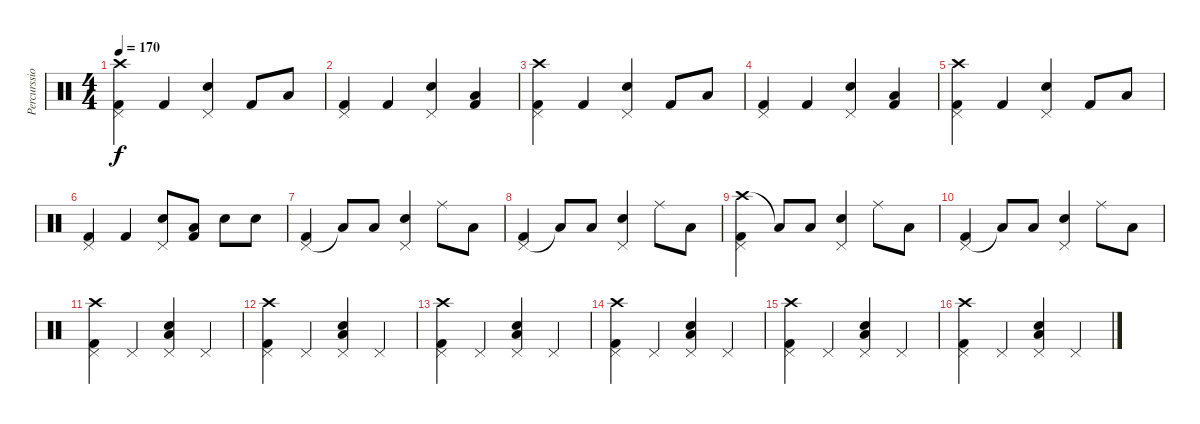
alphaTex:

\track ("Percurssion" "Percurssio") {instrument percussion}
\staff {score}
\articulation defaults
\ts (4 4)
\tempo 170
\clef neutral
\ks c
("Crash high (hit)" "Pedal Hi-Hat (hit)" "Kick (hit) 2").4{dy f} "Kick (hit) 2".4 ("Pedal Hi-Hat (hit)" "Electric Snare (hit)").4 "Kick (hit) 2".8 "Low Tom (hit)".8 |
("Pedal Hi-Hat (hit)" "Kick (hit) 2").4 "Kick (hit) 2".4 ("Pedal Hi-Hat (hit)" "Electric Snare (hit)").4 ("Low Tom (hit)" "Kick (hit) 2").4{bu 240} |
("Crash high (hit)" "Pedal Hi-Hat (hit)" "Kick (hit) 2").4 "Kick (hit) 2".4 ("Pedal Hi-Hat (hit)" "Electric Snare (hit)").4 "Kick (hit) 2".8 "Low Tom (hit)".8 |
("Pedal Hi-Hat (hit)" "Kick (hit) 2").4 "Kick (hit) 2".4 ("Pedal Hi-Hat (hit)" "Electric Snare (hit)").4 ("Low Tom (hit)" "Kick (hit) 2").4{bu 240} |
("Crash high (hit)" "Pedal Hi-Hat (hit)" "Kick (hit) 2").4 "Kick (hit) 2".4 ("Pedal Hi-Hat (hit)" "Electric Snare (hit)").4 "Kick (hit) 2".8 "Low Tom (hit)".8 |
("Pedal Hi-Hat (hit)" "Kick (hit) 2").4 "Kick (hit) 2".4 ("Pedal Hi-Hat (hit)" "Electric Snare (hit)").8 ("Low Tom (hit)" "Kick (hit) 2").8{bu 240} "Electric Snare (hit)".8 "Electric Snare (hit)".8 |
("Pedal Hi-Hat (hit)" "Kick (hit) 2").4 "Low Tom (hit)"{t}.8 "Low Tom (hit)".8 ("Pedal Hi-Hat (hit)" "Electric Snare (hit)").4 "Ride (middle)".8 "Low Tom (hit)".8 |
("Pedal Hi-Hat (hit)" "Kick (hit) 2").4 "Low Tom (hit)"{t}.8 "Low Tom (hit)".8 ("Pedal Hi-Hat (hit)" "Electric Snare (hit)").4 "Ride (middle)".8 "Low Tom (hit)".8 |
("Crash high (hit)" "Pedal Hi-Hat (hit)" "Kick (hit) 2").4 "Low Tom (hit)"{t}.8 "Low Tom (hit)".8 ("Pedal Hi-Hat (hit)" "Electric Snare (hit)").4 "Ride (middle)".8 "Low Tom (hit)".8 |
("Pedal Hi-Hat (hit)" "Kick (hit) 2").4 "Low Tom (hit)"{t}.8 "Low Tom (hit)".8 ("Pedal Hi-Hat (hit)" "Electric Snare (hit)").4 "Ride (middle)".8 "Low Tom (hit)".8 |
("Crash high (hit)" "Pedal Hi-Hat (hit)" "Kick (hit) 2").4 "Pedal Hi-Hat (hit)".4 ("Low Tom (hit)" "Pedal Hi-Hat (hit)" "Electric Snare (hit)").4 "Pedal Hi-Hat (hit)".4 |
("Crash high (hit)" "Pedal Hi-Hat (hit)" "Kick (hit) 2").4 "Pedal Hi-Hat (hit)".4 ("Low Tom (hit)" "Pedal Hi-Hat (hit)" "Electric Snare (hit)").4 "Pedal Hi-Hat (hit)".4 |
("Crash high (hit)" "Pedal Hi-Hat (hit)" "Kick (hit) 2").4 "Pedal Hi-Hat (hit)".4 ("Low Tom (hit)" "Pedal Hi-Hat (hit)" "Electric Snare (hit)").4 "Pedal Hi-Hat (hit)".4 |
("Crash high (hit)" "Pedal Hi-Hat (hit)" "Kick (hit) 2").4 "Pedal Hi-Hat (hit)".4 ("Low Tom (hit)" "Pedal Hi-Hat (hit)" "Electric Snare (hit)").4 "Pedal Hi-Hat (hit)".4 |
("Crash high (hit)" "Pedal Hi-Hat (hit)" "Kick (hit) 2").4 "Pedal Hi-Hat (hit)".4 ("Low Tom (hit)" "Pedal Hi-Hat (hit)" "Electric Snare (hit)").4 "Pedal Hi-Hat (hit)".4 |
("Crash high (hit)" "Pedal Hi-Hat (hit)" "Kick (hit) 2").4 "Pedal Hi-Hat (hit)".4 ("Low Tom (hit)" "Pedal Hi-Hat (hit)" "Electric Snare (hit)").4 "Pedal Hi-Hat (hit)".4
